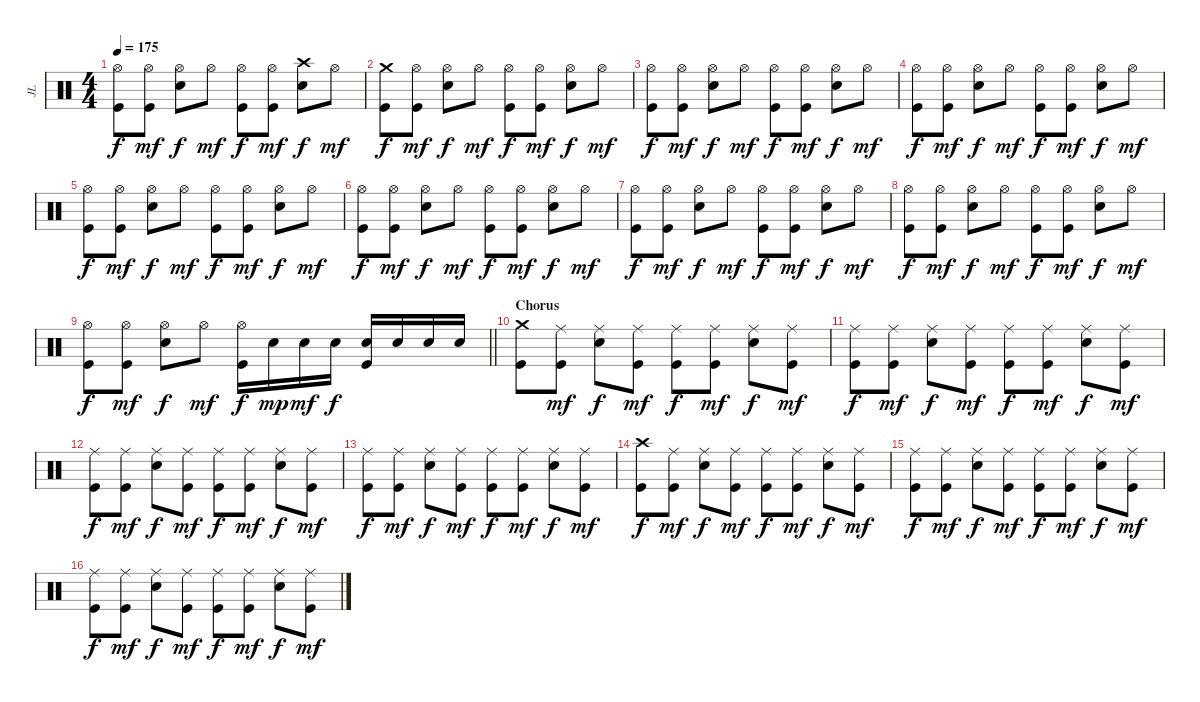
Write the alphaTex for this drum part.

\track ("JL" "JL") {instrument percussion}
\staff {score}
\articulation defaults
\ts (4 4)
\tempo 175
\clef neutral
\ks c
("Hi-Hat (open)" "Kick (hit)").8{dy f} ("Hi-Hat (open)" "Kick (hit)").8{dy mf} ("Hi-Hat (open)" "Electric Snare (hit)").8{dy f} "Hi-Hat (open)".8{dy mf} ("Hi-Hat (open)" "Kick (hit)").8{dy f} ("Hi-Hat (open)" "Kick (hit)").8{dy mf} ("Crash high (hit)" "Electric Snare (hit)").8{dy f} "Hi-Hat (open)".8{dy mf} |
("Crash medium (hit)" "Kick (hit)").8{dy f} ("Hi-Hat (open)" "Kick (hit)").8{dy mf} ("Hi-Hat (open)" "Electric Snare (hit)").8{dy f} "Hi-Hat (open)".8{dy mf} ("Hi-Hat (open)" "Kick (hit)").8{dy f} ("Hi-Hat (open)" "Kick (hit)").8{dy mf} ("Hi-Hat (open)" "Electric Snare (hit)").8{dy f} "Hi-Hat (open)".8{dy mf} |
("Hi-Hat (open)" "Kick (hit)").8{dy f} ("Hi-Hat (open)" "Kick (hit)").8{dy mf} ("Hi-Hat (open)" "Electric Snare (hit)").8{dy f} "Hi-Hat (open)".8{dy mf} ("Hi-Hat (open)" "Kick (hit)").8{dy f} ("Hi-Hat (open)" "Kick (hit)").8{dy mf} ("Hi-Hat (open)" "Electric Snare (hit)").8{dy f} "Hi-Hat (open)".8{dy mf} |
("Hi-Hat (open)" "Kick (hit)").8{dy f} ("Hi-Hat (open)" "Kick (hit)").8{dy mf} ("Hi-Hat (open)" "Electric Snare (hit)").8{dy f} "Hi-Hat (open)".8{dy mf} ("Hi-Hat (open)" "Kick (hit)").8{dy f} ("Hi-Hat (open)" "Kick (hit)").8{dy mf} ("Hi-Hat (open)" "Electric Snare (hit)").8{dy f} "Hi-Hat (open)".8{dy mf} |
("Hi-Hat (open)" "Kick (hit)").8{dy f} ("Hi-Hat (open)" "Kick (hit)").8{dy mf} ("Hi-Hat (open)" "Electric Snare (hit)").8{dy f} "Hi-Hat (open)".8{dy mf} ("Hi-Hat (open)" "Kick (hit)").8{dy f} ("Hi-Hat (open)" "Kick (hit)").8{dy mf} ("Hi-Hat (open)" "Electric Snare (hit)").8{dy f} "Hi-Hat (open)".8{dy mf} |
("Hi-Hat (open)" "Kick (hit)").8{dy f} ("Hi-Hat (open)" "Kick (hit)").8{dy mf} ("Hi-Hat (open)" "Electric Snare (hit)").8{dy f} "Hi-Hat (open)".8{dy mf} ("Hi-Hat (open)" "Kick (hit)").8{dy f} ("Hi-Hat (open)" "Kick (hit)").8{dy mf} ("Hi-Hat (open)" "Electric Snare (hit)").8{dy f} "Hi-Hat (open)".8{dy mf} |
("Hi-Hat (open)" "Kick (hit)").8{dy f} ("Hi-Hat (open)" "Kick (hit)").8{dy mf} ("Hi-Hat (open)" "Electric Snare (hit)").8{dy f} "Hi-Hat (open)".8{dy mf} ("Hi-Hat (open)" "Kick (hit)").8{dy f} ("Hi-Hat (open)" "Kick (hit)").8{dy mf} ("Hi-Hat (open)" "Electric Snare (hit)").8{dy f} "Hi-Hat (open)".8{dy mf} |
("Hi-Hat (open)" "Kick (hit)").8{dy f} ("Hi-Hat (open)" "Kick (hit)").8{dy mf} ("Hi-Hat (open)" "Electric Snare (hit)").8{dy f} "Hi-Hat (open)".8{dy mf} ("Hi-Hat (open)" "Kick (hit)").8{dy f} ("Hi-Hat (open)" "Kick (hit)").8{dy mf} ("Hi-Hat (open)" "Electric Snare (hit)").8{dy f} "Hi-Hat (open)".8{dy mf} |
\barLineRight lightlight
("Hi-Hat (open)" "Kick (hit)").8{dy f} ("Hi-Hat (open)" "Kick (hit)").8{dy mf} ("Hi-Hat (open)" "Electric Snare (hit)").8{dy f} "Hi-Hat (open)".8{dy mf} ("Hi-Hat (open)" "Kick (hit)").16{dy f} "Electric Snare (hit)".16{dy mp} "Electric Snare (hit)".16{dy mf} "Electric Snare (hit)".16{dy f} ("Electric Snare (hit)" "Kick (hit)").16 "Electric Snare (hit)".16 "Electric Snare (hit)".16 "Electric Snare (hit)".16 |
\section ("" "Chorus")
("Crash medium (hit)" "Kick (hit)").8 ("Ride (middle)" "Kick (hit)").8{dy mf} ("Ride (middle)" "Electric Snare (hit)").8{dy f} ("Ride (middle)" "Kick (hit)").8{dy mf} ("Ride (middle)" "Kick (hit)").8{dy f} ("Ride (middle)" "Kick (hit)").8{dy mf} ("Ride (middle)" "Electric Snare (hit)").8{dy f} ("Ride (middle)" "Kick (hit)").8{dy mf} |
("Ride (middle)" "Kick (hit)").8{dy f} ("Ride (middle)" "Kick (hit)").8{dy mf} ("Ride (middle)" "Electric Snare (hit)").8{dy f} ("Ride (middle)" "Kick (hit)").8{dy mf} ("Ride (middle)" "Kick (hit)").8{dy f} ("Ride (middle)" "Kick (hit)").8{dy mf} ("Ride (middle)" "Electric Snare (hit)").8{dy f} ("Ride (middle)" "Kick (hit)").8{dy mf} |
("Ride (middle)" "Kick (hit)").8{dy f} ("Ride (middle)" "Kick (hit)").8{dy mf} ("Ride (middle)" "Electric Snare (hit)").8{dy f} ("Ride (middle)" "Kick (hit)").8{dy mf} ("Ride (middle)" "Kick (hit)").8{dy f} ("Ride (middle)" "Kick (hit)").8{dy mf} ("Ride (middle)" "Electric Snare (hit)").8{dy f} ("Ride (middle)" "Kick (hit)").8{dy mf} |
("Ride (middle)" "Kick (hit)").8{dy f} ("Ride (middle)" "Kick (hit)").8{dy mf} ("Ride (middle)" "Electric Snare (hit)").8{dy f} ("Ride (middle)" "Kick (hit)").8{dy mf} ("Ride (middle)" "Kick (hit)").8{dy f} ("Ride (middle)" "Kick (hit)").8{dy mf} ("Ride (middle)" "Electric Snare (hit)").8{dy f} ("Ride (middle)" "Kick (hit)").8{dy mf} |
("Crash high (hit)" "Kick (hit)").8{dy f} ("Ride (middle)" "Kick (hit)").8{dy mf} ("Ride (middle)" "Electric Snare (hit)").8{dy f} ("Ride (middle)" "Kick (hit)").8{dy mf} ("Ride (middle)" "Kick (hit)").8{dy f} ("Ride (middle)" "Kick (hit)").8{dy mf} ("Ride (middle)" "Electric Snare (hit)").8{dy f} ("Ride (middle)" "Kick (hit)").8{dy mf} |
("Ride (middle)" "Kick (hit)").8{dy f} ("Ride (middle)" "Kick (hit)").8{dy mf} ("Ride (middle)" "Electric Snare (hit)").8{dy f} ("Ride (middle)" "Kick (hit)").8{dy mf} ("Ride (middle)" "Kick (hit)").8{dy f} ("Ride (middle)" "Kick (hit)").8{dy mf} ("Ride (middle)" "Electric Snare (hit)").8{dy f} ("Ride (middle)" "Kick (hit)").8{dy mf} |
("Ride (middle)" "Kick (hit)").8{dy f} ("Ride (middle)" "Kick (hit)").8{dy mf} ("Ride (middle)" "Electric Snare (hit)").8{dy f} ("Ride (middle)" "Kick (hit)").8{dy mf} ("Ride (middle)" "Kick (hit)").8{dy f} ("Ride (middle)" "Kick (hit)").8{dy mf} ("Ride (middle)" "Electric Snare (hit)").8{dy f} ("Ride (middle)" "Kick (hit)").8{dy mf}
